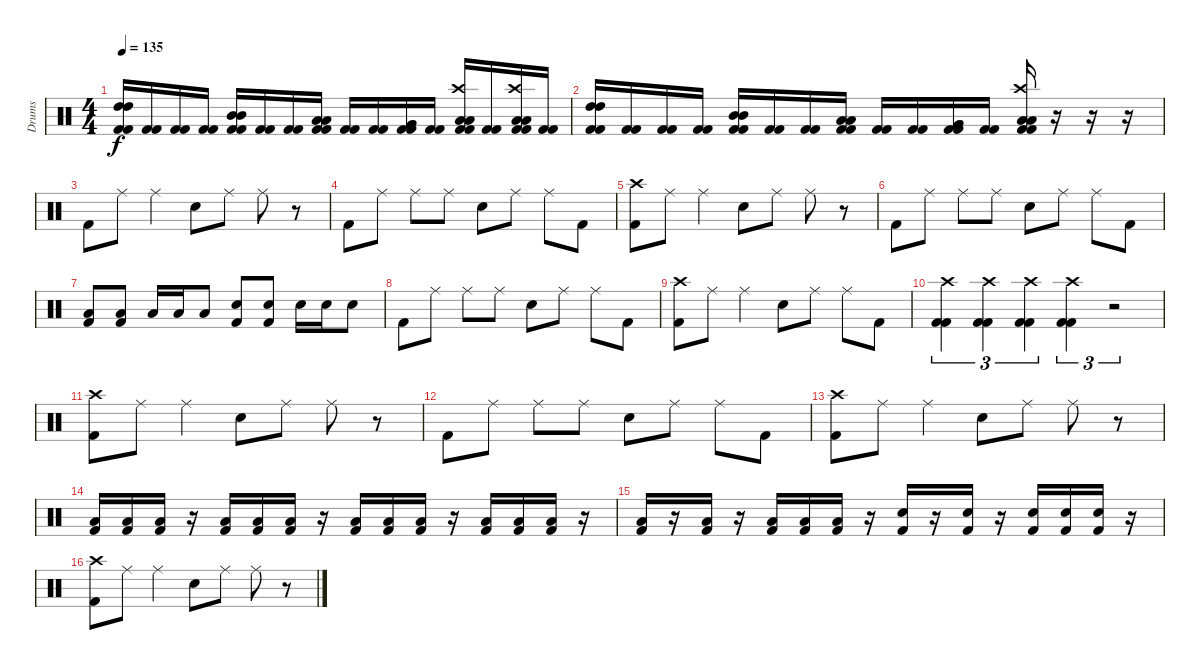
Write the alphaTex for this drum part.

\track ("Drums" "Drums") {instrument percussion}
\staff {score}
\articulation defaults
\ts (4 4)
\tempo 135
\clef neutral
\ks c
("High Tom (hit)" "High Tom (hit)" "Kick (hit) 2" "Kick (hit) 2").16{dy f} ("Kick (hit) 2" "Kick (hit) 2").16 ("Kick (hit) 2" "Kick (hit) 2").16 ("Kick (hit) 2" "Kick (hit) 2").16 ("Mid Tom (hit)" "Mid Tom (hit)" "Kick (hit) 2" "Kick (hit) 2").16 ("Kick (hit) 2" "Kick (hit) 2").16 ("Kick (hit) 2" "Kick (hit) 2").16 ("Low Tom (hit)" "Low Tom (hit)" "Kick (hit) 2" "Kick (hit) 2").16 ("Kick (hit) 2" "Kick (hit) 2").16 ("Kick (hit) 2" "Kick (hit) 2").16 ("Very Low Tom (hit)" "Very Low Tom (hit)" "Kick (hit) 2" "Kick (hit) 2").16 ("Kick (hit) 2" "Kick (hit) 2").16 ("Crash high (hit)" "Low Floor Tom (hit)" "Low Floor Tom (hit)" "Kick (hit) 2" "Kick (hit) 2").16 ("Kick (hit) 2" "Kick (hit) 2").16 ("Crash high (hit)" "Low Floor Tom (hit)" "Low Floor Tom (hit)" "Kick (hit) 2" "Kick (hit) 2").16 ("Kick (hit) 2" "Kick (hit) 2").16 |
("High Tom (hit)" "High Tom (hit)" "Kick (hit) 2" "Kick (hit) 2").16 ("Kick (hit) 2" "Kick (hit) 2").16 ("Kick (hit) 2" "Kick (hit) 2").16 ("Kick (hit) 2" "Kick (hit) 2").16 ("Mid Tom (hit)" "Mid Tom (hit)" "Kick (hit) 2" "Kick (hit) 2").16 ("Kick (hit) 2" "Kick (hit) 2").16 ("Kick (hit) 2" "Kick (hit) 2").16 ("Low Tom (hit)" "Low Tom (hit)" "Kick (hit) 2" "Kick (hit) 2").16 ("Kick (hit) 2" "Kick (hit) 2").16 ("Kick (hit) 2" "Kick (hit) 2").16 ("Very Low Tom (hit)" "Very Low Tom (hit)" "Kick (hit) 2" "Kick (hit) 2").16 ("Kick (hit) 2" "Kick (hit) 2").16 ("Crash high (hit)" "Low Floor Tom (hit)" "Low Floor Tom (hit)" "Kick (hit) 2" "Kick (hit) 2").16 r.16 r.16 r.16 |
"Kick (hit) 2".8 "Ride (middle)".8 "Ride (middle)".4 "Electric Snare (hit)".8 "Ride (middle)".8 "Ride (middle)".8 r.8 |
"Kick (hit) 2".8 "Ride (middle)".8 "Ride (middle)".8 "Ride (middle)".8 "Electric Snare (hit)".8 "Ride (middle)".8 "Ride (middle)".8 "Kick (hit) 2".8 |
("Crash high (hit)" "Kick (hit) 2").8 "Ride (middle)".8 "Ride (middle)".4 "Electric Snare (hit)".8 "Ride (middle)".8 "Ride (middle)".8 r.8 |
"Kick (hit) 2".8 "Ride (middle)".8 "Ride (middle)".8 "Ride (middle)".8 "Electric Snare (hit)".8 "Ride (middle)".8 "Ride (middle)".8 "Kick (hit) 2".8 |
("Low Floor Tom (hit)" "Kick (hit) 2").8 ("Low Floor Tom (hit)" "Kick (hit) 2").8 "Low Floor Tom (hit)".16 "Low Floor Tom (hit)".16 "Low Floor Tom (hit)".8 ("Electric Snare (hit)" "Kick (hit) 2").8 ("Electric Snare (hit)" "Kick (hit) 2").8 "Electric Snare (hit)".16 "Electric Snare (hit)".16 "Electric Snare (hit)".8 |
"Kick (hit) 2".8 "Ride (middle)".8 "Ride (middle)".8 "Ride (middle)".8 "Electric Snare (hit)".8 "Ride (middle)".8 "Ride (middle)".8 "Kick (hit) 2".8 |
("Crash high (hit)" "Kick (hit) 2").8 "Ride (middle)".8 "Ride (middle)".4 "Electric Snare (hit)".8 "Ride (middle)".8 "Ride (middle)".8 "Kick (hit) 2".8 |
("Crash high (hit)" "Kick (hit) 2" "Kick (hit) 2").4{tu (3 2)} ("Crash high (hit)" "Kick (hit) 2" "Kick (hit) 2").4{tu (3 2)} ("Crash high (hit)" "Kick (hit) 2" "Kick (hit) 2").4{tu (3 2)} ("Crash high (hit)" "Kick (hit) 2" "Kick (hit) 2").4{tu (3 2)} r.2{tu (3 2)} |
("Crash high (hit)" "Kick (hit) 2").8 "Ride (middle)".8 "Ride (middle)".4 "Electric Snare (hit)".8 "Ride (middle)".8 "Ride (middle)".8 r.8 |
"Kick (hit) 2".8 "Ride (middle)".8 "Ride (middle)".8 "Ride (middle)".8 "Electric Snare (hit)".8 "Ride (middle)".8 "Ride (middle)".8 "Kick (hit) 2".8 |
("Crash high (hit)" "Kick (hit) 2").8 "Ride (middle)".8 "Ride (middle)".4 "Electric Snare (hit)".8 "Ride (middle)".8 "Ride (middle)".8 r.8 |
("Low Floor Tom (hit)" "Kick (hit) 2").16 ("Low Floor Tom (hit)" "Kick (hit) 2").16 ("Low Floor Tom (hit)" "Kick (hit) 2").16 r.16 ("Low Floor Tom (hit)" "Kick (hit) 2").16 ("Low Floor Tom (hit)" "Kick (hit) 2").16 ("Low Floor Tom (hit)" "Kick (hit) 2").16 r.16 ("Low Floor Tom (hit)" "Kick (hit) 2").16 ("Low Floor Tom (hit)" "Kick (hit) 2").16 ("Low Floor Tom (hit)" "Kick (hit) 2").16 r.16 ("Low Floor Tom (hit)" "Kick (hit) 2").16 ("Low Floor Tom (hit)" "Kick (hit) 2").16 ("Low Floor Tom (hit)" "Kick (hit) 2").16 r.16 |
("Low Floor Tom (hit)" "Kick (hit) 2").16 r.16 ("Low Floor Tom (hit)" "Kick (hit) 2").16 r.16 ("Low Floor Tom (hit)" "Kick (hit) 2").16 ("Low Floor Tom (hit)" "Kick (hit) 2").16 ("Low Floor Tom (hit)" "Kick (hit) 2").16 r.16 ("Electric Snare (hit)" "Kick (hit) 2").16 r.16 ("Electric Snare (hit)" "Kick (hit) 2").16 r.16 ("Electric Snare (hit)" "Kick (hit) 2").16 ("Electric Snare (hit)" "Kick (hit) 2").16 ("Electric Snare (hit)" "Kick (hit) 2").16 r.16 |
("Crash high (hit)" "Kick (hit) 2").8 "Ride (middle)".8 "Ride (middle)".4 "Electric Snare (hit)".8 "Ride (middle)".8 "Ride (middle)".8 r.8
